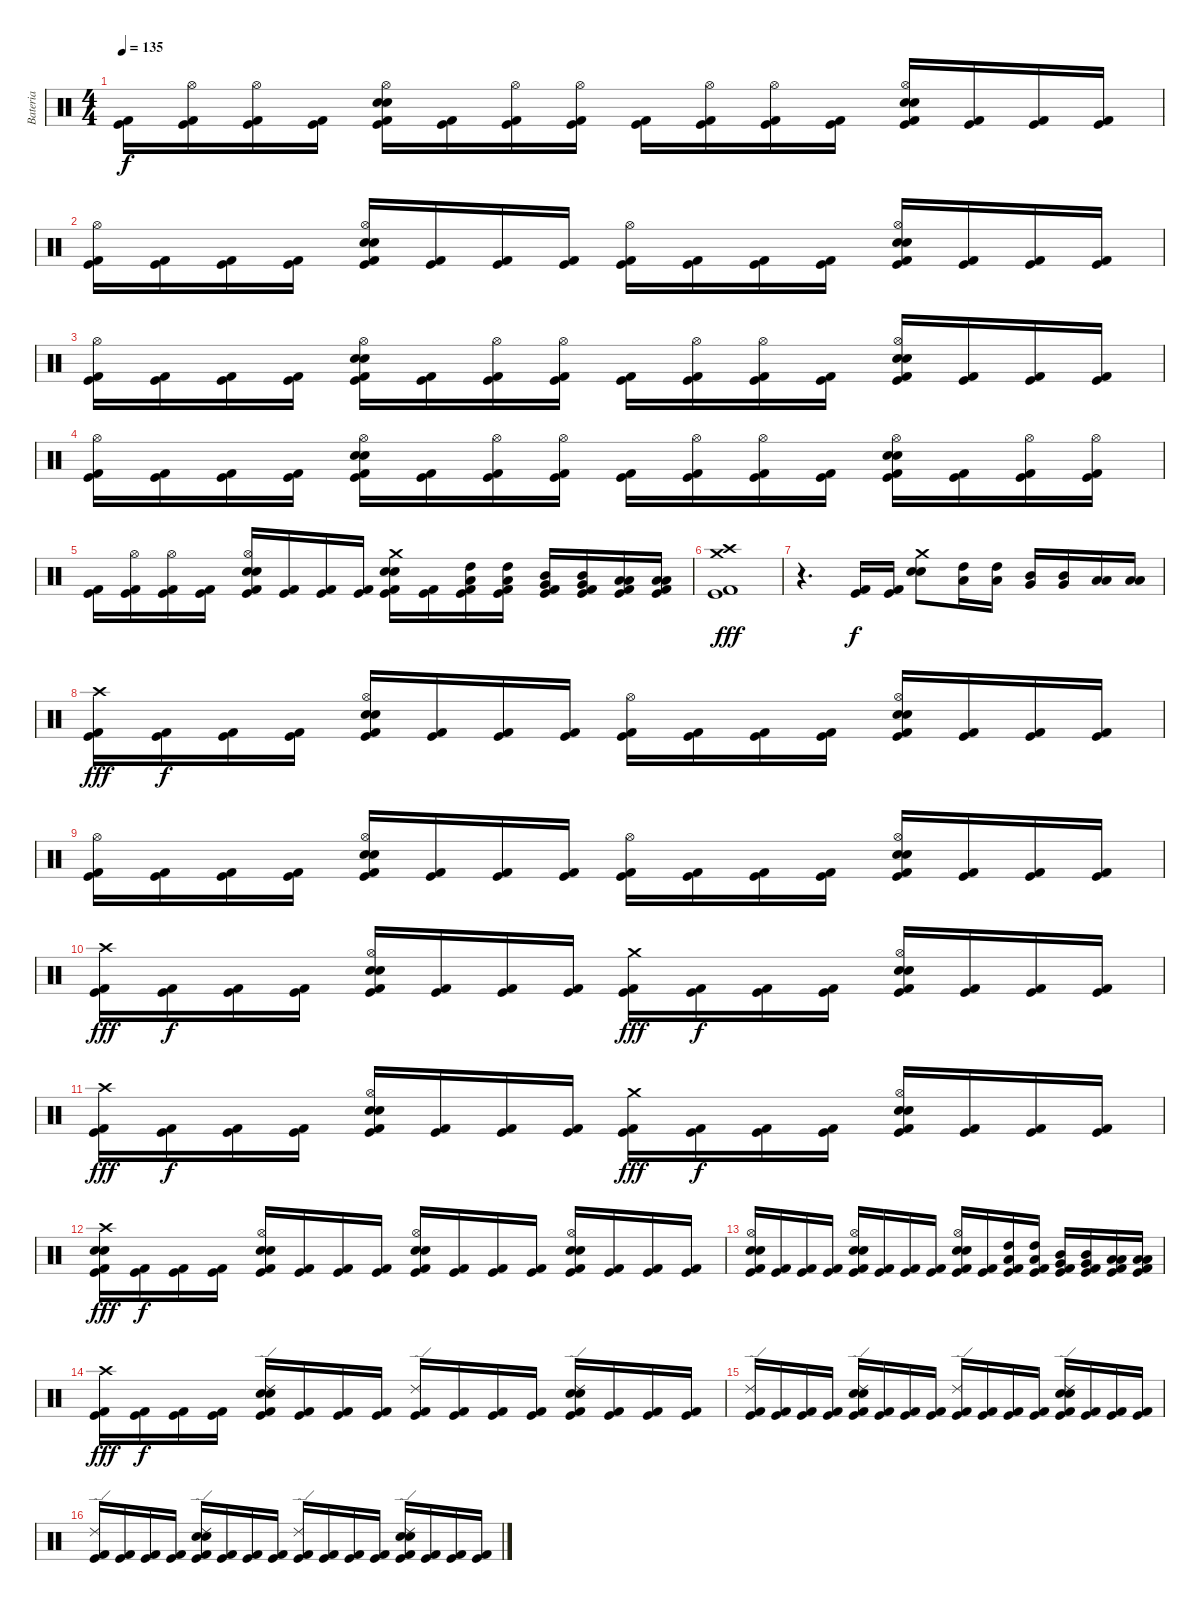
\track ("Bateria" "Bateria") {instrument percussion}
\staff {score}
\articulation defaults
\ts (4 4)
\tempo 135
\clef neutral
\ks c
("Kick (hit) 2" "Kick (hit)").16{dy f} ("Hi-Hat (open)" "Kick (hit) 2" "Kick (hit)").16 ("Hi-Hat (open)" "Kick (hit) 2" "Kick (hit)").16 ("Kick (hit) 2" "Kick (hit)").16 ("Hi-Hat (open)" "Electric Snare (hit)" "Snare (hit) 2" "Kick (hit) 2" "Kick (hit)").16 ("Kick (hit) 2" "Kick (hit)").16 ("Hi-Hat (open)" "Kick (hit) 2" "Kick (hit)").16 ("Hi-Hat (open)" "Kick (hit) 2" "Kick (hit)").16 ("Kick (hit) 2" "Kick (hit)").16 ("Hi-Hat (open)" "Kick (hit) 2" "Kick (hit)").16 ("Hi-Hat (open)" "Kick (hit) 2" "Kick (hit)").16 ("Kick (hit) 2" "Kick (hit)").16 ("Hi-Hat (open)" "Electric Snare (hit)" "Snare (hit) 2" "Kick (hit) 2" "Kick (hit)").16 ("Kick (hit) 2" "Kick (hit)").16 ("Kick (hit) 2" "Kick (hit)").16 ("Kick (hit) 2" "Kick (hit)").16 |
("Hi-Hat (open)" "Kick (hit) 2" "Kick (hit)").16 ("Kick (hit) 2" "Kick (hit)").16 ("Kick (hit) 2" "Kick (hit)").16 ("Kick (hit) 2" "Kick (hit)").16 ("Hi-Hat (open)" "Electric Snare (hit)" "Snare (hit) 2" "Kick (hit) 2" "Kick (hit)").16 ("Kick (hit) 2" "Kick (hit)").16 ("Kick (hit) 2" "Kick (hit)").16 ("Kick (hit) 2" "Kick (hit)").16 ("Hi-Hat (open)" "Kick (hit) 2" "Kick (hit)").16 ("Kick (hit) 2" "Kick (hit)").16 ("Kick (hit) 2" "Kick (hit)").16 ("Kick (hit) 2" "Kick (hit)").16 ("Hi-Hat (open)" "Electric Snare (hit)" "Snare (hit) 2" "Kick (hit) 2" "Kick (hit)").16 ("Kick (hit) 2" "Kick (hit)").16 ("Kick (hit) 2" "Kick (hit)").16 ("Kick (hit) 2" "Kick (hit)").16 |
("Hi-Hat (open)" "Kick (hit) 2" "Kick (hit)").16 ("Kick (hit) 2" "Kick (hit)").16 ("Kick (hit) 2" "Kick (hit)").16 ("Kick (hit) 2" "Kick (hit)").16 ("Hi-Hat (open)" "Electric Snare (hit)" "Snare (hit) 2" "Kick (hit) 2" "Kick (hit)").16 ("Kick (hit) 2" "Kick (hit)").16 ("Hi-Hat (open)" "Kick (hit) 2" "Kick (hit)").16 ("Hi-Hat (open)" "Kick (hit) 2" "Kick (hit)").16 ("Kick (hit) 2" "Kick (hit)").16 ("Hi-Hat (open)" "Kick (hit) 2" "Kick (hit)").16 ("Hi-Hat (open)" "Kick (hit) 2" "Kick (hit)").16 ("Kick (hit) 2" "Kick (hit)").16 ("Hi-Hat (open)" "Electric Snare (hit)" "Snare (hit) 2" "Kick (hit) 2" "Kick (hit)").16 ("Kick (hit) 2" "Kick (hit)").16 ("Kick (hit) 2" "Kick (hit)").16 ("Kick (hit) 2" "Kick (hit)").16 |
("Hi-Hat (open)" "Kick (hit) 2" "Kick (hit)").16 ("Kick (hit) 2" "Kick (hit)").16 ("Kick (hit) 2" "Kick (hit)").16 ("Kick (hit) 2" "Kick (hit)").16 ("Hi-Hat (open)" "Electric Snare (hit)" "Snare (hit) 2" "Kick (hit) 2" "Kick (hit)").16 ("Kick (hit) 2" "Kick (hit)").16 ("Hi-Hat (open)" "Kick (hit) 2" "Kick (hit)").16 ("Hi-Hat (open)" "Kick (hit) 2" "Kick (hit)").16 ("Kick (hit) 2" "Kick (hit)").16 ("Hi-Hat (open)" "Kick (hit) 2" "Kick (hit)").16 ("Hi-Hat (open)" "Kick (hit) 2" "Kick (hit)").16 ("Kick (hit) 2" "Kick (hit)").16 ("Hi-Hat (open)" "Electric Snare (hit)" "Snare (hit) 2" "Kick (hit) 2" "Kick (hit)").16 ("Kick (hit) 2" "Kick (hit)").16 ("Hi-Hat (open)" "Kick (hit) 2" "Kick (hit)").16 ("Hi-Hat (open)" "Kick (hit) 2" "Kick (hit)").16 |
("Kick (hit) 2" "Kick (hit)").16 ("Hi-Hat (open)" "Kick (hit) 2" "Kick (hit)").16 ("Hi-Hat (open)" "Kick (hit) 2" "Kick (hit)").16 ("Kick (hit) 2" "Kick (hit)").16 ("Hi-Hat (open)" "Electric Snare (hit)" "Snare (hit) 2" "Kick (hit) 2" "Kick (hit)").16 ("Kick (hit) 2" "Kick (hit)").16 ("Kick (hit) 2" "Kick (hit)").16 ("Kick (hit) 2" "Kick (hit)").16 ("Crash medium (hit)" "Electric Snare (hit)" "Snare (hit) 2" "Kick (hit) 2" "Kick (hit)").16 ("Kick (hit) 2" "Kick (hit)").16 ("High Tom (hit)" "Low Tom (hit)" "Kick (hit) 2" "Kick (hit)").16 ("High Tom (hit)" "Low Tom (hit)" "Kick (hit) 2" "Kick (hit)").16 ("Mid Tom (hit)" "Very Low Tom (hit)" "Kick (hit) 2" "Kick (hit)").16 ("Mid Tom (hit)" "Very Low Tom (hit)" "Kick (hit) 2" "Kick (hit)").16 ("Low Tom (hit)" "Low Floor Tom (hit)" "Kick (hit) 2" "Kick (hit)").16 ("Low Tom (hit)" "Low Floor Tom (hit)" "Kick (hit) 2" "Kick (hit)").16 |
("Crash high (hit)" "Crash medium (hit)" "Kick (hit) 2" "Kick (hit)").1{dy fff} |
r.4{d} ("Kick (hit) 2" "Kick (hit)").16{dy f} ("Kick (hit) 2" "Kick (hit)").16 ("Crash medium (hit)" "Electric Snare (hit)" "Snare (hit) 2").8 ("High Tom (hit)" "Low Tom (hit)").16 ("High Tom (hit)" "Low Tom (hit)").16 ("Mid Tom (hit)" "Very Low Tom (hit)").16 ("Mid Tom (hit)" "Very Low Tom (hit)").16 ("Low Tom (hit)" "Low Floor Tom (hit)").16 ("Low Tom (hit)" "Low Floor Tom (hit)").16 |
("Crash high (hit)" "Kick (hit) 2" "Kick (hit)").16{dy fff} ("Kick (hit) 2" "Kick (hit)").16{dy f} ("Kick (hit) 2" "Kick (hit)").16 ("Kick (hit) 2" "Kick (hit)").16 ("Hi-Hat (open)" "Electric Snare (hit)" "Snare (hit) 2" "Kick (hit) 2" "Kick (hit)").16 ("Kick (hit) 2" "Kick (hit)").16 ("Kick (hit) 2" "Kick (hit)").16 ("Kick (hit) 2" "Kick (hit)").16 ("Hi-Hat (open)" "Kick (hit) 2" "Kick (hit)").16 ("Kick (hit) 2" "Kick (hit)").16 ("Kick (hit) 2" "Kick (hit)").16 ("Kick (hit) 2" "Kick (hit)").16 ("Hi-Hat (open)" "Electric Snare (hit)" "Snare (hit) 2" "Kick (hit) 2" "Kick (hit)").16 ("Kick (hit) 2" "Kick (hit)").16 ("Kick (hit) 2" "Kick (hit)").16 ("Kick (hit) 2" "Kick (hit)").16 |
("Hi-Hat (open)" "Kick (hit) 2" "Kick (hit)").16 ("Kick (hit) 2" "Kick (hit)").16 ("Kick (hit) 2" "Kick (hit)").16 ("Kick (hit) 2" "Kick (hit)").16 ("Hi-Hat (open)" "Electric Snare (hit)" "Snare (hit) 2" "Kick (hit) 2" "Kick (hit)").16 ("Kick (hit) 2" "Kick (hit)").16 ("Kick (hit) 2" "Kick (hit)").16 ("Kick (hit) 2" "Kick (hit)").16 ("Hi-Hat (open)" "Kick (hit) 2" "Kick (hit)").16 ("Kick (hit) 2" "Kick (hit)").16 ("Kick (hit) 2" "Kick (hit)").16 ("Kick (hit) 2" "Kick (hit)").16 ("Hi-Hat (open)" "Electric Snare (hit)" "Snare (hit) 2" "Kick (hit) 2" "Kick (hit)").16 ("Kick (hit) 2" "Kick (hit)").16 ("Kick (hit) 2" "Kick (hit)").16 ("Kick (hit) 2" "Kick (hit)").16 |
("Crash high (hit)" "Kick (hit) 2" "Kick (hit)").16{dy fff} ("Kick (hit) 2" "Kick (hit)").16{dy f} ("Kick (hit) 2" "Kick (hit)").16 ("Kick (hit) 2" "Kick (hit)").16 ("Hi-Hat (open)" "Electric Snare (hit)" "Snare (hit) 2" "Kick (hit) 2" "Kick (hit)").16 ("Kick (hit) 2" "Kick (hit)").16 ("Kick (hit) 2" "Kick (hit)").16 ("Kick (hit) 2" "Kick (hit)").16 ("Crash medium (hit)" "Kick (hit) 2" "Kick (hit)").16{dy fff} ("Kick (hit) 2" "Kick (hit)").16{dy f} ("Kick (hit) 2" "Kick (hit)").16 ("Kick (hit) 2" "Kick (hit)").16 ("Hi-Hat (open)" "Electric Snare (hit)" "Snare (hit) 2" "Kick (hit) 2" "Kick (hit)").16 ("Kick (hit) 2" "Kick (hit)").16 ("Kick (hit) 2" "Kick (hit)").16 ("Kick (hit) 2" "Kick (hit)").16 |
("Crash high (hit)" "Kick (hit) 2" "Kick (hit)").16{dy fff} ("Kick (hit) 2" "Kick (hit)").16{dy f} ("Kick (hit) 2" "Kick (hit)").16 ("Kick (hit) 2" "Kick (hit)").16 ("Hi-Hat (open)" "Electric Snare (hit)" "Snare (hit) 2" "Kick (hit) 2" "Kick (hit)").16 ("Kick (hit) 2" "Kick (hit)").16 ("Kick (hit) 2" "Kick (hit)").16 ("Kick (hit) 2" "Kick (hit)").16 ("Crash medium (hit)" "Kick (hit) 2" "Kick (hit)").16{dy fff} ("Kick (hit) 2" "Kick (hit)").16{dy f} ("Kick (hit) 2" "Kick (hit)").16 ("Kick (hit) 2" "Kick (hit)").16 ("Hi-Hat (open)" "Electric Snare (hit)" "Snare (hit) 2" "Kick (hit) 2" "Kick (hit)").16 ("Kick (hit) 2" "Kick (hit)").16 ("Kick (hit) 2" "Kick (hit)").16 ("Kick (hit) 2" "Kick (hit)").16 |
("Crash high (hit)" "Electric Snare (hit)" "Snare (hit) 2" "Kick (hit) 2" "Kick (hit)").16{dy fff} ("Kick (hit) 2" "Kick (hit)").16{dy f} ("Kick (hit) 2" "Kick (hit)").16 ("Kick (hit) 2" "Kick (hit)").16 ("Hi-Hat (open)" "Electric Snare (hit)" "Snare (hit) 2" "Kick (hit) 2" "Kick (hit)").16 ("Kick (hit) 2" "Kick (hit)").16 ("Kick (hit) 2" "Kick (hit)").16 ("Kick (hit) 2" "Kick (hit)").16 ("Hi-Hat (open)" "Electric Snare (hit)" "Snare (hit) 2" "Kick (hit) 2" "Kick (hit)").16 ("Kick (hit) 2" "Kick (hit)").16 ("Kick (hit) 2" "Kick (hit)").16 ("Kick (hit) 2" "Kick (hit)").16 ("Hi-Hat (open)" "Electric Snare (hit)" "Snare (hit) 2" "Kick (hit) 2" "Kick (hit)").16 ("Kick (hit) 2" "Kick (hit)").16 ("Kick (hit) 2" "Kick (hit)").16 ("Kick (hit) 2" "Kick (hit)").16 |
("Hi-Hat (open)" "Electric Snare (hit)" "Snare (hit) 2" "Kick (hit) 2" "Kick (hit)").16 ("Kick (hit) 2" "Kick (hit)").16 ("Kick (hit) 2" "Kick (hit)").16 ("Kick (hit) 2" "Kick (hit)").16 ("Hi-Hat (open)" "Electric Snare (hit)" "Snare (hit) 2" "Kick (hit) 2" "Kick (hit)").16 ("Kick (hit) 2" "Kick (hit)").16 ("Kick (hit) 2" "Kick (hit)").16 ("Kick (hit) 2" "Kick (hit)").16 ("Hi-Hat (open)" "Electric Snare (hit)" "Snare (hit) 2" "Kick (hit) 2" "Kick (hit)").16 ("Kick (hit) 2" "Kick (hit)").16 ("High Tom (hit)" "Low Tom (hit)" "Kick (hit) 2" "Kick (hit)").16 ("High Tom (hit)" "Low Tom (hit)" "Kick (hit) 2" "Kick (hit)").16 ("Mid Tom (hit)" "Very Low Tom (hit)" "Kick (hit) 2" "Kick (hit)").16 ("Mid Tom (hit)" "Very Low Tom (hit)" "Kick (hit) 2" "Kick (hit)").16 ("Low Tom (hit)" "Low Floor Tom (hit)" "Kick (hit) 2" "Kick (hit)").16 ("Low Tom (hit)" "Low Floor Tom (hit)" "Kick (hit) 2" "Kick (hit)").16 |
("Crash high (hit)" "Kick (hit) 2" "Kick (hit)").16{dy fff} ("Kick (hit) 2" "Kick (hit)").16{dy f} ("Kick (hit) 2" "Kick (hit)").16 ("Kick (hit) 2" "Kick (hit)").16 ("Ride (edge) 2" "Electric Snare (hit)" "Snare (hit) 2" "Kick (hit) 2" "Kick (hit)").16 ("Kick (hit) 2" "Kick (hit)").16 ("Kick (hit) 2" "Kick (hit)").16 ("Kick (hit) 2" "Kick (hit)").16 ("Ride (edge) 2" "Kick (hit) 2" "Kick (hit)").16 ("Kick (hit) 2" "Kick (hit)").16 ("Kick (hit) 2" "Kick (hit)").16 ("Kick (hit) 2" "Kick (hit)").16 ("Ride (edge) 2" "Electric Snare (hit)" "Snare (hit) 2" "Kick (hit) 2" "Kick (hit)").16 ("Kick (hit) 2" "Kick (hit)").16 ("Kick (hit) 2" "Kick (hit)").16 ("Kick (hit) 2" "Kick (hit)").16 |
("Ride (edge) 2" "Kick (hit) 2" "Kick (hit)").16 ("Kick (hit) 2" "Kick (hit)").16 ("Kick (hit) 2" "Kick (hit)").16 ("Kick (hit) 2" "Kick (hit)").16 ("Ride (edge) 2" "Electric Snare (hit)" "Snare (hit) 2" "Kick (hit) 2" "Kick (hit)").16 ("Kick (hit) 2" "Kick (hit)").16 ("Kick (hit) 2" "Kick (hit)").16 ("Kick (hit) 2" "Kick (hit)").16 ("Ride (edge) 2" "Kick (hit) 2" "Kick (hit)").16 ("Kick (hit) 2" "Kick (hit)").16 ("Kick (hit) 2" "Kick (hit)").16 ("Kick (hit) 2" "Kick (hit)").16 ("Ride (edge) 2" "Electric Snare (hit)" "Snare (hit) 2" "Kick (hit) 2" "Kick (hit)").16 ("Kick (hit) 2" "Kick (hit)").16 ("Kick (hit) 2" "Kick (hit)").16 ("Kick (hit) 2" "Kick (hit)").16 |
("Ride (edge) 2" "Kick (hit) 2" "Kick (hit)").16 ("Kick (hit) 2" "Kick (hit)").16 ("Kick (hit) 2" "Kick (hit)").16 ("Kick (hit) 2" "Kick (hit)").16 ("Ride (edge) 2" "Electric Snare (hit)" "Snare (hit) 2" "Kick (hit) 2" "Kick (hit)").16 ("Kick (hit) 2" "Kick (hit)").16 ("Kick (hit) 2" "Kick (hit)").16 ("Kick (hit) 2" "Kick (hit)").16 ("Ride (edge) 2" "Kick (hit) 2" "Kick (hit)").16 ("Kick (hit) 2" "Kick (hit)").16 ("Kick (hit) 2" "Kick (hit)").16 ("Kick (hit) 2" "Kick (hit)").16 ("Ride (edge) 2" "Electric Snare (hit)" "Snare (hit) 2" "Kick (hit) 2" "Kick (hit)").16 ("Kick (hit) 2" "Kick (hit)").16 ("Kick (hit) 2" "Kick (hit)").16 ("Kick (hit) 2" "Kick (hit)").16
